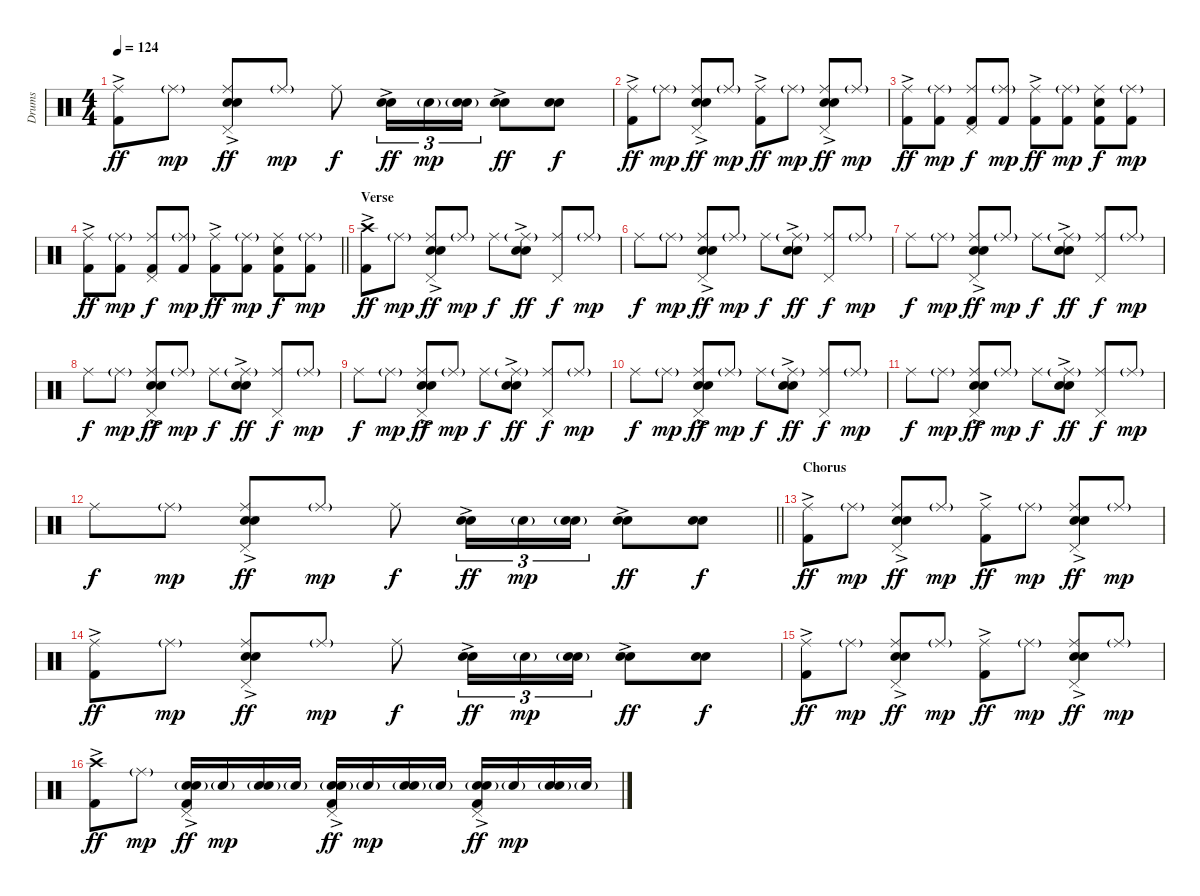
\track ("Drums" "Drums") {instrument percussion}
\staff {score}
\articulation defaults
\ts (4 4)
\tempo 124
\clef neutral
\ks c
("Ride (middle)" "Kick (hit) 2"{ac}).8{dy ff} "Ride (middle)"{g}.8{dy mp} ("Ride (middle)" "Electric Snare (hit)"{ac} "Snare (hit) 2" "Pedal Hi-Hat (hit)").8{dy ff} "Ride (middle)"{g}.8{dy mp} "Ride (middle)".8{dy f} ("Electric Snare (hit)"{ac} "Snare (hit) 2").16{tu (3 2) dy ff} "Snare (hit) 2"{g}.16{tu (3 2) dy mp} ("Electric Snare (hit)"{g} "Snare (hit) 2").16{tu (3 2)} ("Electric Snare (hit)"{ac} "Snare (hit) 2").8{dy ff} ("Electric Snare (hit)" "Snare (hit) 2").8{dy f} |
("Ride (middle)" "Kick (hit) 2"{ac}).8{dy ff} "Ride (middle)"{g}.8{dy mp} ("Ride (middle)" "Electric Snare (hit)"{ac} "Snare (hit) 2" "Pedal Hi-Hat (hit)").8{dy ff} "Ride (middle)"{g}.8{dy mp} ("Ride (middle)" "Kick (hit) 2"{ac}).8{dy ff} "Ride (middle)"{g}.8{dy mp} ("Ride (middle)" "Electric Snare (hit)"{ac} "Snare (hit) 2" "Pedal Hi-Hat (hit)").8{dy ff} "Ride (middle)"{g}.8{dy mp} |
("Ride (middle)" "Kick (hit) 2"{ac}).8{dy ff} ("Ride (middle)"{g} "Kick (hit) 2").8{dy mp} ("Ride (middle)" "Pedal Hi-Hat (hit)" "Kick (hit) 2").8{dy f} ("Ride (middle)"{g} "Kick (hit) 2").8{dy mp} ("Ride (middle)" "Kick (hit) 2"{ac}).8{dy ff} ("Ride (middle)"{g} "Kick (hit) 2").8{dy mp} ("Ride (middle)" "Snare (hit)" "Kick (hit) 2").8{dy f} ("Ride (middle)"{g} "Kick (hit) 2").8{dy mp} |
\barLineRight lightlight
("Ride (middle)" "Kick (hit) 2"{ac}).8{dy ff} ("Ride (middle)"{g} "Kick (hit) 2").8{dy mp} ("Ride (middle)" "Pedal Hi-Hat (hit)" "Kick (hit) 2").8{dy f} ("Ride (middle)"{g} "Kick (hit) 2").8{dy mp} ("Ride (middle)" "Kick (hit) 2"{ac}).8{dy ff} ("Ride (middle)"{g} "Kick (hit) 2").8{dy mp} ("Ride (middle)" "Snare (hit)" "Kick (hit) 2").8{dy f} ("Ride (middle)"{g} "Kick (hit) 2").8{dy mp} |
\section ("" "Verse")
("Crash high (hit)" "Kick (hit) 2"{ac}).8{dy ff} "Ride (middle)"{g}.8{dy mp} ("Ride (middle)" "Electric Snare (hit)"{ac} "Snare (hit) 2" "Pedal Hi-Hat (hit)").8{dy ff} "Ride (middle)"{g}.8{dy mp} "Ride (middle)".8{dy f} ("Ride (middle)"{g} "Electric Snare (hit)"{ac} "Snare (hit) 2").8{dy ff} ("Ride (middle)" "Pedal Hi-Hat (hit)").8{dy f} "Ride (middle)"{g}.8{dy mp} |
"Ride (middle)".8{dy f} "Ride (middle)"{g}.8{dy mp} ("Ride (middle)" "Electric Snare (hit)"{ac} "Snare (hit) 2" "Pedal Hi-Hat (hit)").8{dy ff} "Ride (middle)"{g}.8{dy mp} "Ride (middle)".8{dy f} ("Ride (middle)"{g} "Electric Snare (hit)"{ac} "Snare (hit) 2").8{dy ff} ("Ride (middle)" "Pedal Hi-Hat (hit)").8{dy f} "Ride (middle)"{g}.8{dy mp} |
"Ride (middle)".8{dy f} "Ride (middle)"{g}.8{dy mp} ("Ride (middle)" "Electric Snare (hit)"{ac} "Snare (hit) 2" "Pedal Hi-Hat (hit)").8{dy ff} "Ride (middle)"{g}.8{dy mp} "Ride (middle)".8{dy f} ("Ride (middle)"{g} "Electric Snare (hit)"{ac} "Snare (hit) 2").8{dy ff} ("Ride (middle)" "Pedal Hi-Hat (hit)").8{dy f} "Ride (middle)"{g}.8{dy mp} |
"Ride (middle)".8{dy f} "Ride (middle)"{g}.8{dy mp} ("Ride (middle)" "Electric Snare (hit)"{ac} "Snare (hit) 2" "Pedal Hi-Hat (hit)").8{dy ff} "Ride (middle)"{g}.8{dy mp} "Ride (middle)".8{dy f} ("Ride (middle)"{g} "Electric Snare (hit)"{ac} "Snare (hit) 2").8{dy ff} ("Ride (middle)" "Pedal Hi-Hat (hit)").8{dy f} "Ride (middle)"{g}.8{dy mp} |
"Ride (middle)".8{dy f} "Ride (middle)"{g}.8{dy mp} ("Ride (middle)" "Electric Snare (hit)"{ac} "Snare (hit) 2" "Pedal Hi-Hat (hit)").8{dy ff} "Ride (middle)"{g}.8{dy mp} "Ride (middle)".8{dy f} ("Ride (middle)"{g} "Electric Snare (hit)"{ac} "Snare (hit) 2").8{dy ff} ("Ride (middle)" "Pedal Hi-Hat (hit)").8{dy f} "Ride (middle)"{g}.8{dy mp} |
"Ride (middle)".8{dy f} "Ride (middle)"{g}.8{dy mp} ("Ride (middle)" "Electric Snare (hit)"{ac} "Snare (hit) 2" "Pedal Hi-Hat (hit)").8{dy ff} "Ride (middle)"{g}.8{dy mp} "Ride (middle)".8{dy f} ("Ride (middle)"{g} "Electric Snare (hit)"{ac} "Snare (hit) 2").8{dy ff} ("Ride (middle)" "Pedal Hi-Hat (hit)").8{dy f} "Ride (middle)"{g}.8{dy mp} |
"Ride (middle)".8{dy f} "Ride (middle)"{g}.8{dy mp} ("Ride (middle)" "Electric Snare (hit)"{ac} "Snare (hit) 2" "Pedal Hi-Hat (hit)").8{dy ff} "Ride (middle)"{g}.8{dy mp} "Ride (middle)".8{dy f} ("Ride (middle)"{g} "Electric Snare (hit)"{ac} "Snare (hit) 2").8{dy ff} ("Ride (middle)" "Pedal Hi-Hat (hit)").8{dy f} "Ride (middle)"{g}.8{dy mp} |
\barLineRight lightlight "Ride (middle)".8{dy f} "Ride (middle)"{g}.8{dy mp}
("Ride (middle)" "Electric Snare (hit)"{ac} "Snare (hit) 2" "Pedal Hi-Hat (hit)").8{dy ff} "Ride (middle)"{g}.8{dy mp} "Ride (middle)".8{dy f} ("Electric Snare (hit)"{ac} "Snare (hit) 2").16{tu (3 2) dy ff} "Snare (hit) 2"{g}.16{tu (3 2) dy mp} ("Electric Snare (hit)"{g} "Snare (hit) 2").16{tu (3 2)} ("Electric Snare (hit)"{ac} "Snare (hit) 2").8{dy ff} ("Electric Snare (hit)" "Snare (hit) 2").8{dy f} |
\section ("" "Chorus")
("Ride (middle)" "Kick (hit) 2"{ac}).8{dy ff} "Ride (middle)"{g}.8{dy mp} ("Ride (middle)" "Electric Snare (hit)"{ac} "Snare (hit) 2" "Pedal Hi-Hat (hit)").8{dy ff} "Ride (middle)"{g}.8{dy mp} ("Ride (middle)" "Kick (hit) 2"{ac}).8{dy ff} "Ride (middle)"{g}.8{dy mp} ("Ride (middle)" "Electric Snare (hit)"{ac} "Snare (hit) 2" "Pedal Hi-Hat (hit)").8{dy ff} "Ride (middle)"{g}.8{dy mp} |
("Ride (middle)" "Kick (hit) 2"{ac}).8{dy ff} "Ride (middle)"{g}.8{dy mp} ("Ride (middle)" "Electric Snare (hit)"{ac} "Snare (hit) 2" "Pedal Hi-Hat (hit)").8{dy ff} "Ride (middle)"{g}.8{dy mp} "Ride (middle)".8{dy f} ("Electric Snare (hit)"{ac} "Snare (hit) 2").16{tu (3 2) dy ff} "Snare (hit) 2"{g}.16{tu (3 2) dy mp} ("Electric Snare (hit)"{g} "Snare (hit) 2").16{tu (3 2)} ("Electric Snare (hit)"{ac} "Snare (hit) 2").8{dy ff} ("Electric Snare (hit)" "Snare (hit) 2").8{dy f} |
("Ride (middle)" "Kick (hit) 2"{ac}).8{dy ff} "Ride (middle)"{g}.8{dy mp} ("Ride (middle)" "Electric Snare (hit)"{ac} "Snare (hit) 2" "Pedal Hi-Hat (hit)").8{dy ff} "Ride (middle)"{g}.8{dy mp} ("Ride (middle)" "Kick (hit) 2"{ac}).8{dy ff} "Ride (middle)"{g}.8{dy mp} ("Ride (middle)" "Electric Snare (hit)"{ac} "Snare (hit) 2" "Pedal Hi-Hat (hit)").8{dy ff} "Ride (middle)"{g}.8{dy mp} |
("Crash high (hit)" "Kick (hit) 2"{ac}).8{dy ff} "Ride (middle)"{g}.8{dy mp} ("Pedal Hi-Hat (hit)" "Electric Snare (hit)"{g} "Snare (hit) 2" "Kick (hit) 2"{ac}).16{dy ff} "Snare (hit) 2"{g}.16{dy mp} ("Electric Snare (hit)"{g} "Snare (hit) 2").16 "Snare (hit) 2"{g}.16 ("Pedal Hi-Hat (hit)" "Electric Snare (hit)"{g} "Snare (hit) 2" "Kick (hit) 2"{ac}).16{dy ff} "Snare (hit) 2"{g}.16{dy mp} ("Electric Snare (hit)"{g} "Snare (hit) 2").16 "Snare (hit) 2"{g}.16 ("Pedal Hi-Hat (hit)" "Electric Snare (hit)"{g} "Snare (hit) 2" "Kick (hit) 2"{ac}).16{dy ff} "Snare (hit) 2"{g}.16{dy mp} ("Electric Snare (hit)"{g} "Snare (hit) 2").16 "Snare (hit) 2"{g}.16
